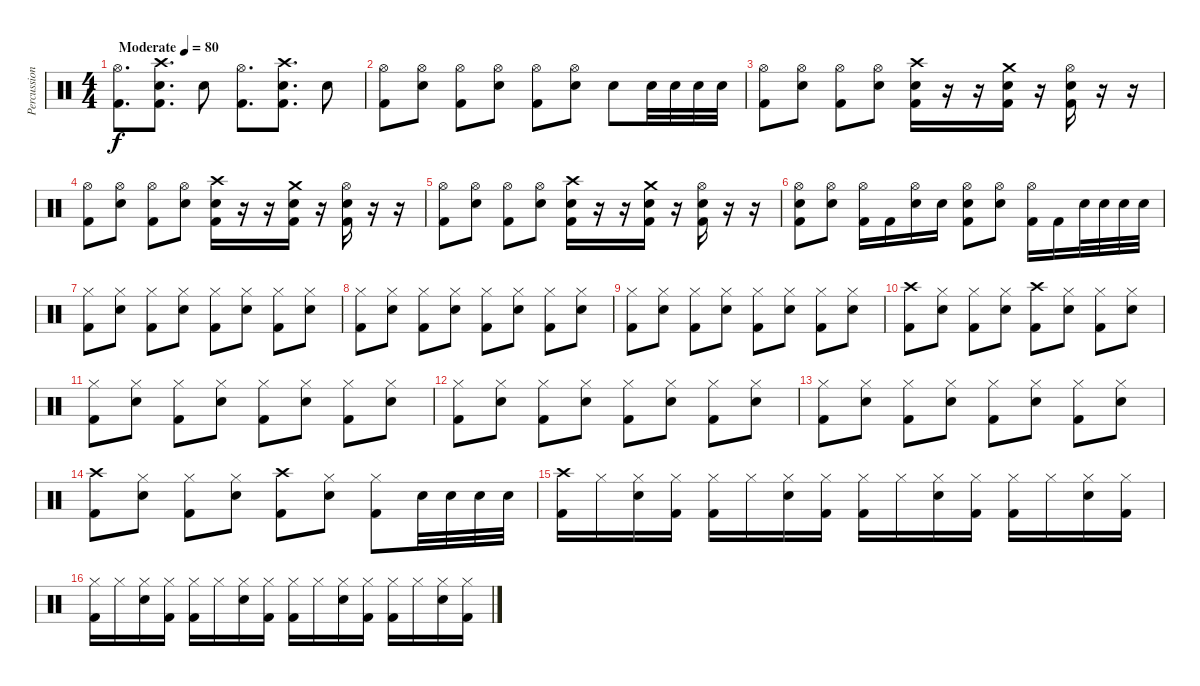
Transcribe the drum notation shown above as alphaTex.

\track ("Percussion" "Percussion") {instrument percussion}
\staff {score}
\articulation defaults
\ts (4 4)
\tempo (80 "Moderate")
\clef neutral
\ks c
("Hi-Hat (open)" "Kick (hit) 2").8{d dy f} ("Crash high (hit)" "Snare (hit) 2" "Kick (hit) 2").8{d} "Snare (hit) 2".8 ("Hi-Hat (open)" "Kick (hit) 2").8{d} ("Crash high (hit)" "Snare (hit) 2" "Kick (hit) 2").8{d} "Snare (hit) 2".8 |
("Hi-Hat (open)" "Kick (hit) 2").8 ("Hi-Hat (open)" "Snare (hit) 2").8 ("Hi-Hat (open)" "Kick (hit) 2").8 ("Hi-Hat (open)" "Snare (hit) 2").8 ("Hi-Hat (open)" "Kick (hit) 2").8 ("Hi-Hat (open)" "Snare (hit) 2").8 "Snare (hit) 2".8 "Snare (hit) 2".32 "Snare (hit) 2".32 "Snare (hit) 2".32 "Snare (hit) 2".32 |
("Hi-Hat (open)" "Kick (hit) 2").8 ("Hi-Hat (open)" "Snare (hit) 2").8 ("Hi-Hat (open)" "Kick (hit) 2").8 ("Hi-Hat (open)" "Snare (hit) 2").8 ("Crash high (hit)" "Snare (hit) 2" "Kick (hit) 2").16 r.16 r.16 ("Crash medium (hit)" "Snare (hit) 2" "Kick (hit) 2").16 r.16 ("Hi-Hat (open)" "Snare (hit) 2" "Kick (hit) 2").16 r.16 r.16 |
("Hi-Hat (open)" "Kick (hit) 2").8 ("Hi-Hat (open)" "Snare (hit) 2").8 ("Hi-Hat (open)" "Kick (hit) 2").8 ("Hi-Hat (open)" "Snare (hit) 2").8 ("Crash high (hit)" "Snare (hit) 2" "Kick (hit) 2").16 r.16 r.16 ("Crash medium (hit)" "Snare (hit) 2" "Kick (hit) 2").16 r.16 ("Hi-Hat (open)" "Snare (hit) 2" "Kick (hit) 2").16 r.16 r.16 |
("Hi-Hat (open)" "Kick (hit) 2").8 ("Hi-Hat (open)" "Snare (hit) 2").8 ("Hi-Hat (open)" "Kick (hit) 2").8 ("Hi-Hat (open)" "Snare (hit) 2").8 ("Crash high (hit)" "Snare (hit) 2" "Kick (hit) 2").16 r.16 r.16 ("Crash medium (hit)" "Snare (hit) 2" "Kick (hit) 2").16 r.16 ("Hi-Hat (open)" "Snare (hit) 2" "Kick (hit) 2").16 r.16 r.16 |
("Hi-Hat (open)" "Snare (hit) 2" "Kick (hit) 2").8 ("Hi-Hat (open)" "Snare (hit) 2").8 ("Hi-Hat (open)" "Kick (hit) 2").16 "Kick (hit) 2".16 ("Hi-Hat (open)" "Snare (hit) 2").16 "Snare (hit) 2".16 ("Hi-Hat (open)" "Snare (hit) 2" "Kick (hit) 2").8 ("Hi-Hat (open)" "Snare (hit) 2").8 ("Hi-Hat (open)" "Kick (hit) 2").16 "Kick (hit) 2".16 "Snare (hit) 2".32 "Snare (hit) 2".32 "Snare (hit) 2".32 "Snare (hit) 2".32 |
("Hi-Hat (closed)" "Kick (hit) 2").8 ("Hi-Hat (closed)" "Snare (hit) 2").8 ("Hi-Hat (closed)" "Kick (hit) 2").8 ("Hi-Hat (closed)" "Snare (hit) 2").8 ("Hi-Hat (closed)" "Kick (hit) 2").8 ("Hi-Hat (closed)" "Snare (hit) 2").8 ("Hi-Hat (closed)" "Kick (hit) 2").8 ("Hi-Hat (closed)" "Snare (hit) 2").8 |
("Hi-Hat (closed)" "Kick (hit) 2").8 ("Hi-Hat (closed)" "Snare (hit) 2").8 ("Hi-Hat (closed)" "Kick (hit) 2").8 ("Hi-Hat (closed)" "Snare (hit) 2").8 ("Hi-Hat (closed)" "Kick (hit) 2").8 ("Hi-Hat (closed)" "Snare (hit) 2").8 ("Hi-Hat (closed)" "Kick (hit) 2").8 ("Hi-Hat (closed)" "Snare (hit) 2").8 |
("Hi-Hat (closed)" "Kick (hit) 2").8 ("Hi-Hat (closed)" "Snare (hit) 2").8 ("Hi-Hat (closed)" "Kick (hit) 2").8 ("Hi-Hat (closed)" "Snare (hit) 2").8 ("Hi-Hat (closed)" "Kick (hit) 2").8 ("Hi-Hat (closed)" "Snare (hit) 2").8 ("Hi-Hat (closed)" "Kick (hit) 2").8 ("Hi-Hat (closed)" "Snare (hit) 2").8 |
("Crash high (hit)" "Kick (hit) 2").8 ("Hi-Hat (closed)" "Snare (hit) 2").8 ("Hi-Hat (closed)" "Kick (hit) 2").8 ("Hi-Hat (closed)" "Snare (hit) 2").8 ("Crash high (hit)" "Kick (hit) 2").8 ("Hi-Hat (closed)" "Snare (hit) 2").8 ("Hi-Hat (closed)" "Kick (hit) 2").8 ("Hi-Hat (closed)" "Snare (hit) 2").8 |
("Hi-Hat (closed)" "Kick (hit) 2").8 ("Hi-Hat (closed)" "Snare (hit) 2").8 ("Hi-Hat (closed)" "Kick (hit) 2").8 ("Hi-Hat (closed)" "Snare (hit) 2").8 ("Hi-Hat (closed)" "Kick (hit) 2").8 ("Hi-Hat (closed)" "Snare (hit) 2").8 ("Hi-Hat (closed)" "Kick (hit) 2").8 ("Hi-Hat (closed)" "Snare (hit) 2").8 |
("Hi-Hat (closed)" "Kick (hit) 2").8 ("Hi-Hat (closed)" "Snare (hit) 2").8 ("Hi-Hat (closed)" "Kick (hit) 2").8 ("Hi-Hat (closed)" "Snare (hit) 2").8 ("Hi-Hat (closed)" "Kick (hit) 2").8 ("Hi-Hat (closed)" "Snare (hit) 2").8 ("Hi-Hat (closed)" "Kick (hit) 2").8 ("Hi-Hat (closed)" "Snare (hit) 2").8 |
("Hi-Hat (closed)" "Kick (hit) 2").8 ("Hi-Hat (closed)" "Snare (hit) 2").8 ("Hi-Hat (closed)" "Kick (hit) 2").8 ("Hi-Hat (closed)" "Snare (hit) 2").8 ("Hi-Hat (closed)" "Kick (hit) 2").8 ("Hi-Hat (closed)" "Snare (hit) 2").8 ("Hi-Hat (closed)" "Kick (hit) 2").8 ("Hi-Hat (closed)" "Snare (hit) 2").8 |
("Crash high (hit)" "Kick (hit) 2").8 ("Hi-Hat (closed)" "Snare (hit) 2").8 ("Hi-Hat (closed)" "Kick (hit) 2").8 ("Hi-Hat (closed)" "Snare (hit) 2").8 ("Crash high (hit)" "Kick (hit) 2").8 ("Hi-Hat (closed)" "Snare (hit) 2").8 ("Hi-Hat (closed)" "Kick (hit) 2").8 "Snare (hit) 2".32 "Snare (hit) 2".32 "Snare (hit) 2".32 "Snare (hit) 2".32 |
("Crash high (hit)" "Kick (hit) 2").16 "Hi-Hat (closed)".16 ("Hi-Hat (closed)" "Snare (hit) 2").16 ("Hi-Hat (closed)" "Kick (hit) 2").16 ("Hi-Hat (closed)" "Kick (hit) 2").16 "Hi-Hat (closed)".16 ("Hi-Hat (closed)" "Snare (hit) 2").16 ("Hi-Hat (closed)" "Kick (hit) 2").16 ("Hi-Hat (closed)" "Kick (hit) 2").16 "Hi-Hat (closed)".16 ("Hi-Hat (closed)" "Snare (hit) 2").16 ("Hi-Hat (closed)" "Kick (hit) 2").16 ("Hi-Hat (closed)" "Kick (hit) 2").16 "Hi-Hat (closed)".16 ("Hi-Hat (closed)" "Snare (hit) 2").16 ("Hi-Hat (closed)" "Kick (hit) 2").16 |
("Hi-Hat (closed)" "Kick (hit) 2").16 "Hi-Hat (closed)".16 ("Hi-Hat (closed)" "Snare (hit) 2").16 ("Hi-Hat (closed)" "Kick (hit) 2").16 ("Hi-Hat (closed)" "Kick (hit) 2").16 "Hi-Hat (closed)".16 ("Hi-Hat (closed)" "Snare (hit) 2").16 ("Hi-Hat (closed)" "Kick (hit) 2").16 ("Hi-Hat (closed)" "Kick (hit) 2").16 "Hi-Hat (closed)".16 ("Hi-Hat (closed)" "Snare (hit) 2").16 ("Hi-Hat (closed)" "Kick (hit) 2").16 ("Hi-Hat (closed)" "Kick (hit) 2").16 "Hi-Hat (closed)".16 ("Hi-Hat (closed)" "Snare (hit) 2").16 ("Hi-Hat (closed)" "Kick (hit) 2").16
